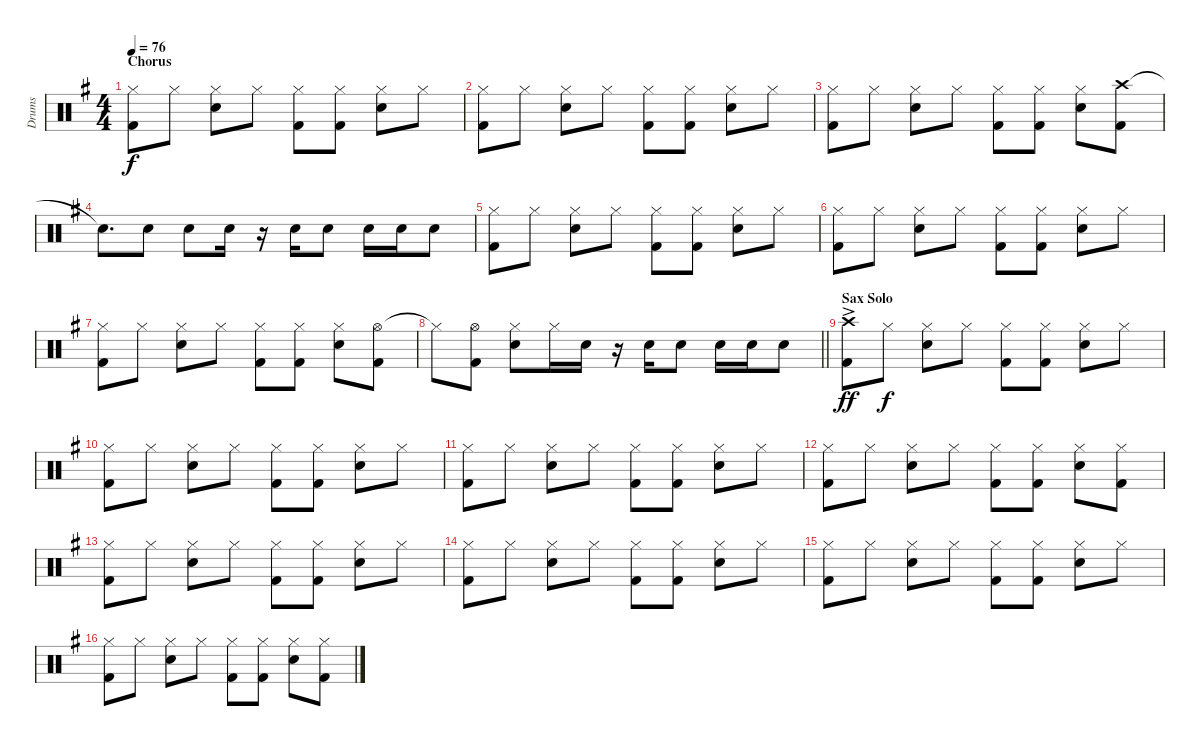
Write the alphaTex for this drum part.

\track ("Drums" "Drums") {instrument percussion}
\staff {score}
\articulation defaults
\ts (4 4)
\section ("" "Chorus")
\tempo 76
\clef neutral
\ks eminor
("Hi-Hat (closed)" "Kick (hit) 2").8{dy f} "Hi-Hat (closed)".8 ("Hi-Hat (closed)" "Snare (hit) 2").8 "Hi-Hat (closed)".8 ("Hi-Hat (closed)" "Kick (hit) 2").8 ("Hi-Hat (closed)" "Kick (hit) 2").8 ("Hi-Hat (closed)" "Snare (hit) 2").8 "Hi-Hat (closed)".8 |
("Hi-Hat (closed)" "Kick (hit) 2").8 "Hi-Hat (closed)".8 ("Hi-Hat (closed)" "Snare (hit) 2").8 "Hi-Hat (closed)".8 ("Hi-Hat (closed)" "Kick (hit) 2").8 ("Hi-Hat (closed)" "Kick (hit) 2").8 ("Hi-Hat (closed)" "Snare (hit) 2").8 "Hi-Hat (closed)".8 |
("Hi-Hat (closed)" "Kick (hit) 2").8 "Hi-Hat (closed)".8 ("Hi-Hat (closed)" "Snare (hit) 2").8 "Hi-Hat (closed)".8 ("Hi-Hat (closed)" "Kick (hit) 2").8 ("Hi-Hat (closed)" "Kick (hit) 2").8 ("Hi-Hat (closed)" "Snare (hit) 2").8 ("Crash high (hit)" "Kick (hit) 2").8 |
"Snare (hit)"{t}.8{d} "Snare (hit) 2".8 "Snare (hit) 2".8 "Snare (hit) 2".16 r.16 "Snare (hit) 2".16 "Snare (hit) 2".8 "Snare (hit) 2".16 "Snare (hit) 2".16 "Snare (hit) 2".8 |
("Hi-Hat (closed)" "Kick (hit) 2").8 "Hi-Hat (closed)".8 ("Hi-Hat (closed)" "Snare (hit) 2").8 "Hi-Hat (closed)".8 ("Hi-Hat (closed)" "Kick (hit) 2").8 ("Hi-Hat (closed)" "Kick (hit) 2").8 ("Hi-Hat (closed)" "Snare (hit) 2").8 "Hi-Hat (closed)".8 |
("Hi-Hat (closed)" "Kick (hit) 2").8 "Hi-Hat (closed)".8 ("Hi-Hat (closed)" "Snare (hit) 2").8 "Hi-Hat (closed)".8 ("Hi-Hat (closed)" "Kick (hit) 2").8 ("Hi-Hat (closed)" "Kick (hit) 2").8 ("Hi-Hat (closed)" "Snare (hit) 2").8 "Hi-Hat (closed)".8 |
("Hi-Hat (closed)" "Kick (hit) 2").8 "Hi-Hat (closed)".8 ("Hi-Hat (closed)" "Snare (hit) 2").8 "Hi-Hat (closed)".8 ("Hi-Hat (closed)" "Kick (hit) 2").8 ("Hi-Hat (closed)" "Kick (hit) 2").8 ("Hi-Hat (closed)" "Snare (hit) 2").8 ("Hi-Hat (open)" "Kick (hit) 2").8 |
\barLineRight lightlight "Hi-Hat (closed)"{t}.8
("Hi-Hat (open)" "Kick (hit) 2").8 ("Hi-Hat (closed)" "Snare (hit) 2").8 "Hi-Hat (closed)".16 "Snare (hit) 2".16 r.16 "Snare (hit) 2".16 "Snare (hit) 2".8 "Snare (hit) 2".16 "Snare (hit) 2".16 "Snare (hit) 2".8 |
\section ("" "Sax Solo")
("Crash high (hit)"{ac} "Kick (hit) 2").8{dy ff} "Hi-Hat (closed)".8{dy f} ("Hi-Hat (closed)" "Snare (hit) 2").8 "Hi-Hat (closed)".8 ("Hi-Hat (closed)" "Kick (hit) 2").8 ("Hi-Hat (closed)" "Kick (hit) 2").8 ("Hi-Hat (closed)" "Snare (hit) 2").8 "Hi-Hat (closed)".8 |
("Hi-Hat (closed)" "Kick (hit) 2").8 "Hi-Hat (closed)".8 ("Hi-Hat (closed)" "Snare (hit) 2").8 "Hi-Hat (closed)".8 ("Hi-Hat (closed)" "Kick (hit) 2").8 ("Hi-Hat (closed)" "Kick (hit) 2").8 ("Hi-Hat (closed)" "Snare (hit) 2").8 "Hi-Hat (closed)".8 |
("Hi-Hat (closed)" "Kick (hit) 2").8 "Hi-Hat (closed)".8 ("Hi-Hat (closed)" "Snare (hit) 2").8 "Hi-Hat (closed)".8 ("Hi-Hat (closed)" "Kick (hit) 2").8 ("Hi-Hat (closed)" "Kick (hit) 2").8 ("Hi-Hat (closed)" "Snare (hit) 2").8 "Hi-Hat (closed)".8 |
("Hi-Hat (closed)" "Kick (hit) 2").8 "Hi-Hat (closed)".8 ("Hi-Hat (closed)" "Snare (hit) 2").8 "Hi-Hat (closed)".8 ("Hi-Hat (closed)" "Kick (hit) 2").8 ("Hi-Hat (closed)" "Kick (hit) 2").8 ("Hi-Hat (closed)" "Snare (hit) 2").8 ("Hi-Hat (closed)" "Kick (hit) 2").8 |
("Hi-Hat (closed)" "Kick (hit) 2").8 "Hi-Hat (closed)".8 ("Hi-Hat (closed)" "Snare (hit) 2").8 "Hi-Hat (closed)".8 ("Hi-Hat (closed)" "Kick (hit) 2").8 ("Hi-Hat (closed)" "Kick (hit) 2").8 ("Hi-Hat (closed)" "Snare (hit) 2").8 "Hi-Hat (closed)".8 |
("Hi-Hat (closed)" "Kick (hit) 2").8 "Hi-Hat (closed)".8 ("Hi-Hat (closed)" "Snare (hit) 2").8 "Hi-Hat (closed)".8 ("Hi-Hat (closed)" "Kick (hit) 2").8 ("Hi-Hat (closed)" "Kick (hit) 2").8 ("Hi-Hat (closed)" "Snare (hit) 2").8 "Hi-Hat (closed)".8 |
("Hi-Hat (closed)" "Kick (hit) 2").8 "Hi-Hat (closed)".8 ("Hi-Hat (closed)" "Snare (hit) 2").8 "Hi-Hat (closed)".8 ("Hi-Hat (closed)" "Kick (hit) 2").8 ("Hi-Hat (closed)" "Kick (hit) 2").8 ("Hi-Hat (closed)" "Snare (hit) 2").8 "Hi-Hat (closed)".8 |
("Hi-Hat (closed)" "Kick (hit) 2").8 "Hi-Hat (closed)".8 ("Hi-Hat (closed)" "Snare (hit) 2").8 "Hi-Hat (closed)".8 ("Hi-Hat (closed)" "Kick (hit) 2").8 ("Hi-Hat (closed)" "Kick (hit) 2").8 ("Hi-Hat (closed)" "Snare (hit) 2").8 ("Hi-Hat (closed)" "Kick (hit) 2").8
